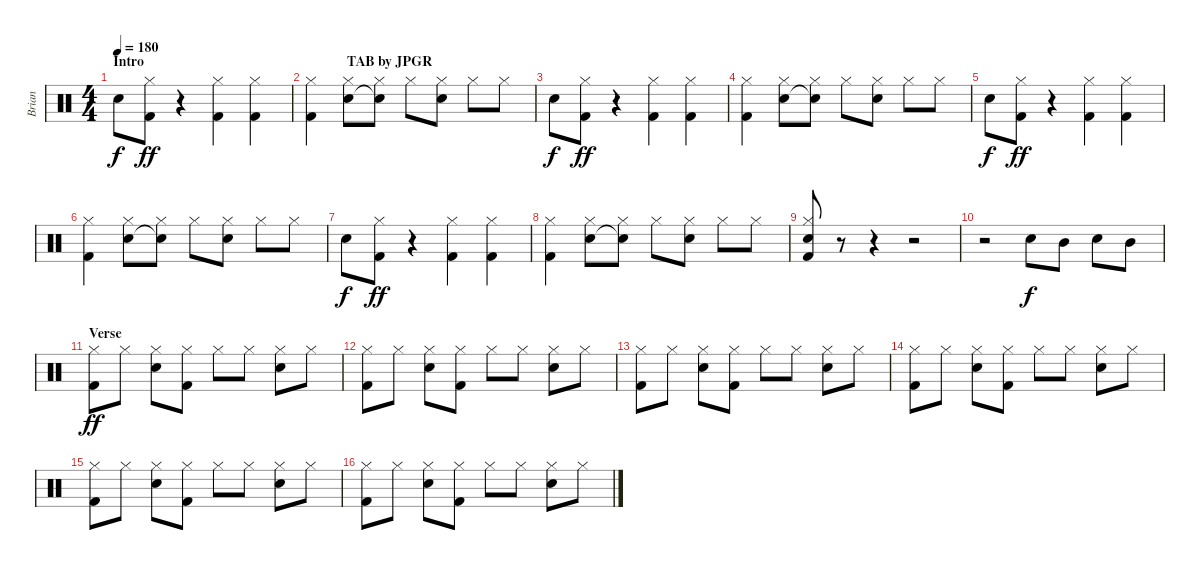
\track ("Brian" "Brian") {instrument percussion}
\staff {score}
\articulation defaults
\ts (4 4)
\section ("" "Intro                                                          TAB by JPGR")
\tempo 180
\clef neutral
\ks c "Snare (hit) 2".8{dy f}
("Hi-Hat (closed)" "Kick (hit) 2").8{dy ff} r.4 ("Hi-Hat (closed)" "Kick (hit) 2").4 ("Hi-Hat (closed)" "Kick (hit) 2").4 |
("Hi-Hat (closed)" "Kick (hit) 2").4 ("Hi-Hat (closed)" "Snare (hit) 2").8 ("Hi-Hat (closed)" "Electric Snare (hit)"{t}).8 "Hi-Hat (closed)".8 ("Hi-Hat (closed)" "Snare (hit) 2").8 "Hi-Hat (closed)".8 "Hi-Hat (closed)".8 |
"Snare (hit) 2".8{dy f} ("Hi-Hat (closed)" "Kick (hit) 2").8{dy ff} r.4 ("Hi-Hat (closed)" "Kick (hit) 2").4 ("Hi-Hat (closed)" "Kick (hit) 2").4 |
("Hi-Hat (closed)" "Kick (hit) 2").4 ("Hi-Hat (closed)" "Snare (hit) 2").8 ("Hi-Hat (closed)" "Electric Snare (hit)"{t}).8 "Hi-Hat (closed)".8 ("Hi-Hat (closed)" "Snare (hit) 2").8 "Hi-Hat (closed)".8 "Hi-Hat (closed)".8 |
"Snare (hit) 2".8{dy f} ("Hi-Hat (closed)" "Kick (hit) 2").8{dy ff} r.4 ("Hi-Hat (closed)" "Kick (hit) 2").4 ("Hi-Hat (closed)" "Kick (hit) 2").4 |
("Hi-Hat (closed)" "Kick (hit) 2").4 ("Hi-Hat (closed)" "Snare (hit) 2").8 ("Hi-Hat (closed)" "Electric Snare (hit)"{t}).8 "Hi-Hat (closed)".8 ("Hi-Hat (closed)" "Snare (hit) 2").8 "Hi-Hat (closed)".8 "Hi-Hat (closed)".8 |
"Snare (hit) 2".8{dy f} ("Hi-Hat (closed)" "Kick (hit) 2").8{dy ff} r.4 ("Hi-Hat (closed)" "Kick (hit) 2").4 ("Hi-Hat (closed)" "Kick (hit) 2").4 |
("Hi-Hat (closed)" "Kick (hit) 2").4 ("Hi-Hat (closed)" "Snare (hit) 2").8 ("Hi-Hat (closed)" "Electric Snare (hit)"{t}).8 "Hi-Hat (closed)".8 ("Hi-Hat (closed)" "Snare (hit) 2").8 "Hi-Hat (closed)".8 "Hi-Hat (closed)".8 |
("Hi-Hat (closed)" "Snare (hit) 2" "Kick (hit) 2").8 r.8 r.4 r.2 |
r.2 "Snare (hit) 2".8{dy f} "Mid Tom (hit)".8 "Snare (hit) 2".8 "Mid Tom (hit)".8 |
\section ("" "Verse ")
("Hi-Hat (closed)" "Kick (hit) 2").8{dy ff} "Hi-Hat (closed)".8 ("Hi-Hat (closed)" "Snare (hit) 2").8 ("Hi-Hat (closed)" "Kick (hit) 2").8 "Hi-Hat (closed)".8 "Hi-Hat (closed)".8 ("Hi-Hat (closed)" "Snare (hit) 2").8 "Hi-Hat (closed)".8 |
("Hi-Hat (closed)" "Kick (hit) 2").8 "Hi-Hat (closed)".8 ("Hi-Hat (closed)" "Snare (hit) 2").8 ("Hi-Hat (closed)" "Kick (hit) 2").8 "Hi-Hat (closed)".8 "Hi-Hat (closed)".8 ("Hi-Hat (closed)" "Snare (hit) 2").8 "Hi-Hat (closed)".8 |
("Hi-Hat (closed)" "Kick (hit) 2").8 "Hi-Hat (closed)".8 ("Hi-Hat (closed)" "Snare (hit) 2").8 ("Hi-Hat (closed)" "Kick (hit) 2").8 "Hi-Hat (closed)".8 "Hi-Hat (closed)".8 ("Hi-Hat (closed)" "Snare (hit) 2").8 "Hi-Hat (closed)".8 |
("Hi-Hat (closed)" "Kick (hit) 2").8 "Hi-Hat (closed)".8 ("Hi-Hat (closed)" "Snare (hit) 2").8 ("Hi-Hat (closed)" "Kick (hit) 2").8 "Hi-Hat (closed)".8 "Hi-Hat (closed)".8 ("Hi-Hat (closed)" "Snare (hit) 2").8 "Hi-Hat (closed)".8 |
("Hi-Hat (closed)" "Kick (hit) 2").8 "Hi-Hat (closed)".8 ("Hi-Hat (closed)" "Snare (hit) 2").8 ("Hi-Hat (closed)" "Kick (hit) 2").8 "Hi-Hat (closed)".8 "Hi-Hat (closed)".8 ("Hi-Hat (closed)" "Snare (hit) 2").8 "Hi-Hat (closed)".8 |
("Hi-Hat (closed)" "Kick (hit) 2").8 "Hi-Hat (closed)".8 ("Hi-Hat (closed)" "Snare (hit) 2").8 ("Hi-Hat (closed)" "Kick (hit) 2").8 "Hi-Hat (closed)".8 "Hi-Hat (closed)".8 ("Hi-Hat (closed)" "Snare (hit) 2").8 "Hi-Hat (closed)".8
